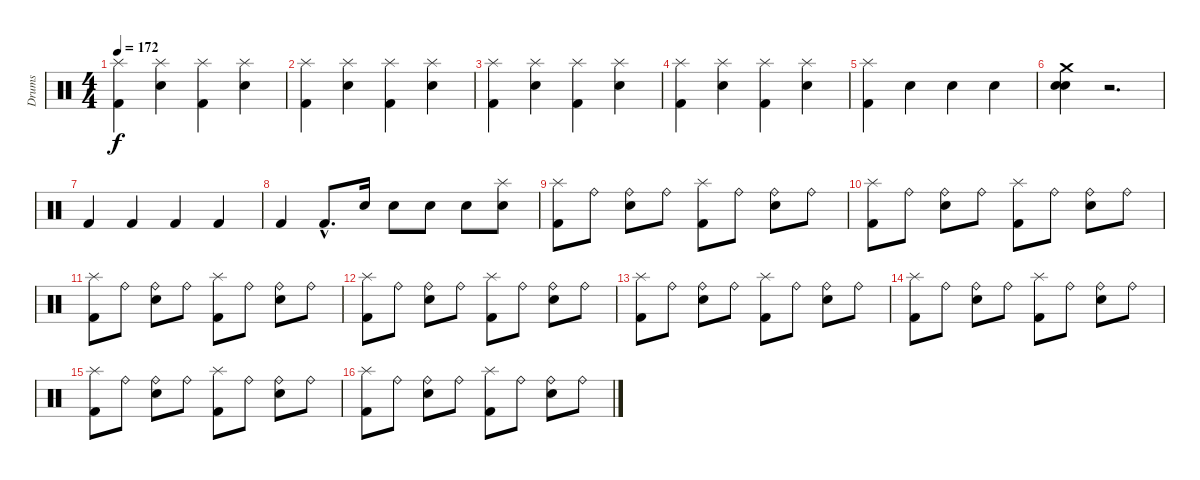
\track ("Drums" "Drums") {instrument percussion}
\staff {score}
\articulation defaults
\ts (4 4)
\tempo 172
\clef neutral
\ks c
("Splash (hit)" "Kick (hit) 2").4{dy f} ("Splash (hit)" "Snare (hit) 2").4 ("Splash (hit)" "Kick (hit) 2").4 ("Splash (hit)" "Snare (hit) 2").4 |
("Splash (hit)" "Kick (hit) 2").4 ("Splash (hit)" "Snare (hit) 2").4 ("Splash (hit)" "Kick (hit) 2").4 ("Splash (hit)" "Snare (hit) 2").4 |
("Splash (hit)" "Kick (hit) 2").4 ("Splash (hit)" "Snare (hit) 2").4 ("Splash (hit)" "Kick (hit) 2").4 ("Splash (hit)" "Snare (hit) 2").4 |
("Splash (hit)" "Kick (hit) 2").4 ("Splash (hit)" "Snare (hit) 2").4 ("Splash (hit)" "Kick (hit) 2").4 ("Splash (hit)" "Snare (hit) 2").4 |
("Splash (hit)" "Kick (hit) 2").4 "Snare (hit) 2".4 "Snare (hit) 2".4 "Snare (hit) 2".4 |
("Crash medium (hit)" "Snare (hit) 2" "Electric Snare (hit)").4 r.2{d} |
"Kick (hit) 2".4 "Kick (hit) 2".4 "Kick (hit) 2".4 "Kick (hit) 2".4 |
"Kick (hit) 2".4 "Kick (hit) 2"{hac}.8{d} "Electric Snare (hit)".16 "Electric Snare (hit)".8 "Electric Snare (hit)".8 "Electric Snare (hit)".8 ("Splash (hit)" "Electric Snare (hit)").8 |
("Splash (hit)" "Kick (hit) 2").8 "Ride (bell)".8 ("Ride (bell)" "Snare (hit) 2").8 "Ride (bell)".8 ("Splash (hit)" "Kick (hit) 2").8 "Ride (bell)".8 ("Ride (bell)" "Snare (hit) 2").8 "Ride (bell)".8 |
("Splash (hit)" "Kick (hit) 2").8 "Ride (bell)".8 ("Ride (bell)" "Snare (hit) 2").8 "Ride (bell)".8 ("Splash (hit)" "Kick (hit) 2").8 "Ride (bell)".8 ("Ride (bell)" "Snare (hit) 2").8 "Ride (bell)".8 |
("Splash (hit)" "Kick (hit) 2").8 "Ride (bell)".8 ("Ride (bell)" "Snare (hit) 2").8 "Ride (bell)".8 ("Splash (hit)" "Kick (hit) 2").8 "Ride (bell)".8 ("Ride (bell)" "Snare (hit) 2").8 "Ride (bell)".8 |
("Splash (hit)" "Kick (hit) 2").8 "Ride (bell)".8 ("Ride (bell)" "Snare (hit) 2").8 "Ride (bell)".8 ("Splash (hit)" "Kick (hit) 2").8 "Ride (bell)".8 ("Ride (bell)" "Snare (hit) 2").8 "Ride (bell)".8 |
("Splash (hit)" "Kick (hit) 2").8 "Ride (bell)".8 ("Ride (bell)" "Snare (hit) 2").8 "Ride (bell)".8 ("Splash (hit)" "Kick (hit) 2").8 "Ride (bell)".8 ("Ride (bell)" "Snare (hit) 2").8 "Ride (bell)".8 |
("Splash (hit)" "Kick (hit) 2").8 "Ride (bell)".8 ("Ride (bell)" "Snare (hit) 2").8 "Ride (bell)".8 ("Splash (hit)" "Kick (hit) 2").8 "Ride (bell)".8 ("Ride (bell)" "Snare (hit) 2").8 "Ride (bell)".8 |
("Splash (hit)" "Kick (hit) 2").8 "Ride (bell)".8 ("Ride (bell)" "Snare (hit) 2").8 "Ride (bell)".8 ("Splash (hit)" "Kick (hit) 2").8 "Ride (bell)".8 ("Ride (bell)" "Snare (hit) 2").8 "Ride (bell)".8 |
("Splash (hit)" "Kick (hit) 2").8 "Ride (bell)".8 ("Ride (bell)" "Snare (hit) 2").8 "Ride (bell)".8 ("Splash (hit)" "Kick (hit) 2").8 "Ride (bell)".8 ("Ride (bell)" "Snare (hit) 2").8 "Ride (bell)".8
